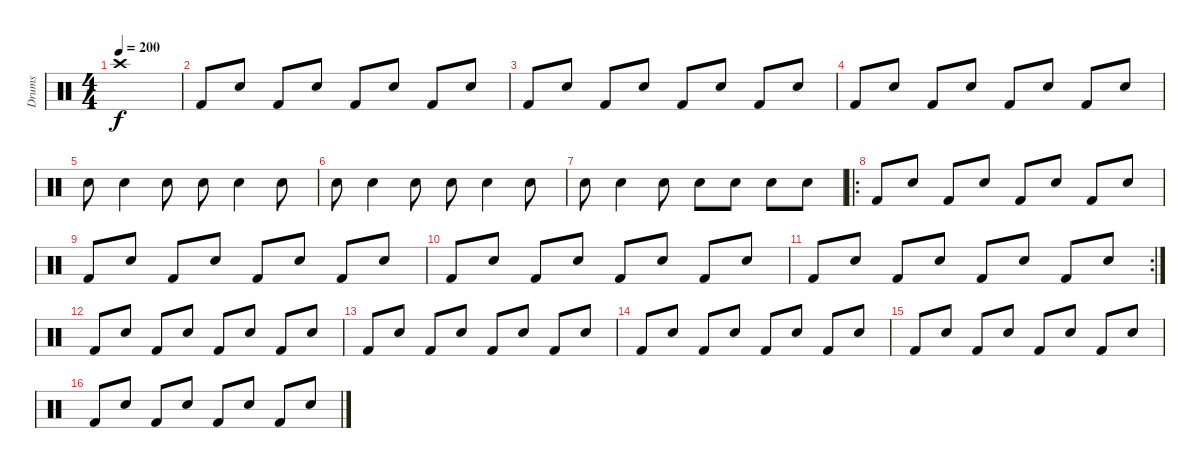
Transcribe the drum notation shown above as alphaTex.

\track ("Drums" "Drums") {instrument percussion}
\staff {score}
\articulation defaults
\ts (4 4)
\tempo 200
\clef neutral
\ks c "Crash high (hit)".1{dy f}
|
"Kick (hit) 2".8 "Snare (hit) 2".8 "Kick (hit) 2".8 "Snare (hit) 2".8 "Kick (hit) 2".8 "Snare (hit) 2".8 "Kick (hit) 2".8 "Snare (hit) 2".8 |
"Kick (hit) 2".8 "Snare (hit) 2".8 "Kick (hit) 2".8 "Snare (hit) 2".8 "Kick (hit) 2".8 "Snare (hit) 2".8 "Kick (hit) 2".8 "Snare (hit) 2".8 |
"Kick (hit) 2".8 "Snare (hit) 2".8 "Kick (hit) 2".8 "Snare (hit) 2".8 "Kick (hit) 2".8 "Snare (hit) 2".8 "Kick (hit) 2".8 "Snare (hit) 2".8 |
"Snare (hit) 2".8 "Snare (hit) 2".4 "Snare (hit) 2".8 "Snare (hit) 2".8 "Snare (hit) 2".4 "Snare (hit) 2".8 |
"Snare (hit) 2".8 "Snare (hit) 2".4 "Snare (hit) 2".8 "Snare (hit) 2".8 "Snare (hit) 2".4 "Snare (hit) 2".8 |
"Snare (hit) 2".8 "Snare (hit) 2".4 "Snare (hit) 2".8 "Snare (hit) 2".8 "Snare (hit) 2".8 "Snare (hit) 2".8 "Snare (hit) 2".8 |
\ro "Kick (hit) 2".8 "Snare (hit) 2".8 "Kick (hit) 2".8 "Snare (hit) 2".8 "Kick (hit) 2".8 "Snare (hit) 2".8 "Kick (hit) 2".8 "Snare (hit) 2".8
|
"Kick (hit) 2".8 "Snare (hit) 2".8 "Kick (hit) 2".8 "Snare (hit) 2".8 "Kick (hit) 2".8 "Snare (hit) 2".8 "Kick (hit) 2".8 "Snare (hit) 2".8 |
"Kick (hit) 2".8 "Snare (hit) 2".8 "Kick (hit) 2".8 "Snare (hit) 2".8 "Kick (hit) 2".8 "Snare (hit) 2".8 "Kick (hit) 2".8 "Snare (hit) 2".8 |
\rc 2 "Kick (hit) 2".8 "Snare (hit) 2".8 "Kick (hit) 2".8 "Snare (hit) 2".8 "Kick (hit) 2".8 "Snare (hit) 2".8 "Kick (hit) 2".8 "Snare (hit) 2".8
|
"Kick (hit) 2".8 "Snare (hit) 2".8 "Kick (hit) 2".8 "Snare (hit) 2".8 "Kick (hit) 2".8 "Snare (hit) 2".8 "Kick (hit) 2".8 "Snare (hit) 2".8 |
"Kick (hit) 2".8 "Snare (hit) 2".8 "Kick (hit) 2".8 "Snare (hit) 2".8 "Kick (hit) 2".8 "Snare (hit) 2".8 "Kick (hit) 2".8 "Snare (hit) 2".8 |
"Kick (hit) 2".8 "Snare (hit) 2".8 "Kick (hit) 2".8 "Snare (hit) 2".8 "Kick (hit) 2".8 "Snare (hit) 2".8 "Kick (hit) 2".8 "Snare (hit) 2".8 |
"Kick (hit) 2".8 "Snare (hit) 2".8 "Kick (hit) 2".8 "Snare (hit) 2".8 "Kick (hit) 2".8 "Snare (hit) 2".8 "Kick (hit) 2".8 "Snare (hit) 2".8 |
"Kick (hit) 2".8 "Snare (hit) 2".8 "Kick (hit) 2".8 "Snare (hit) 2".8 "Kick (hit) 2".8 "Snare (hit) 2".8 "Kick (hit) 2".8 "Snare (hit) 2".8
